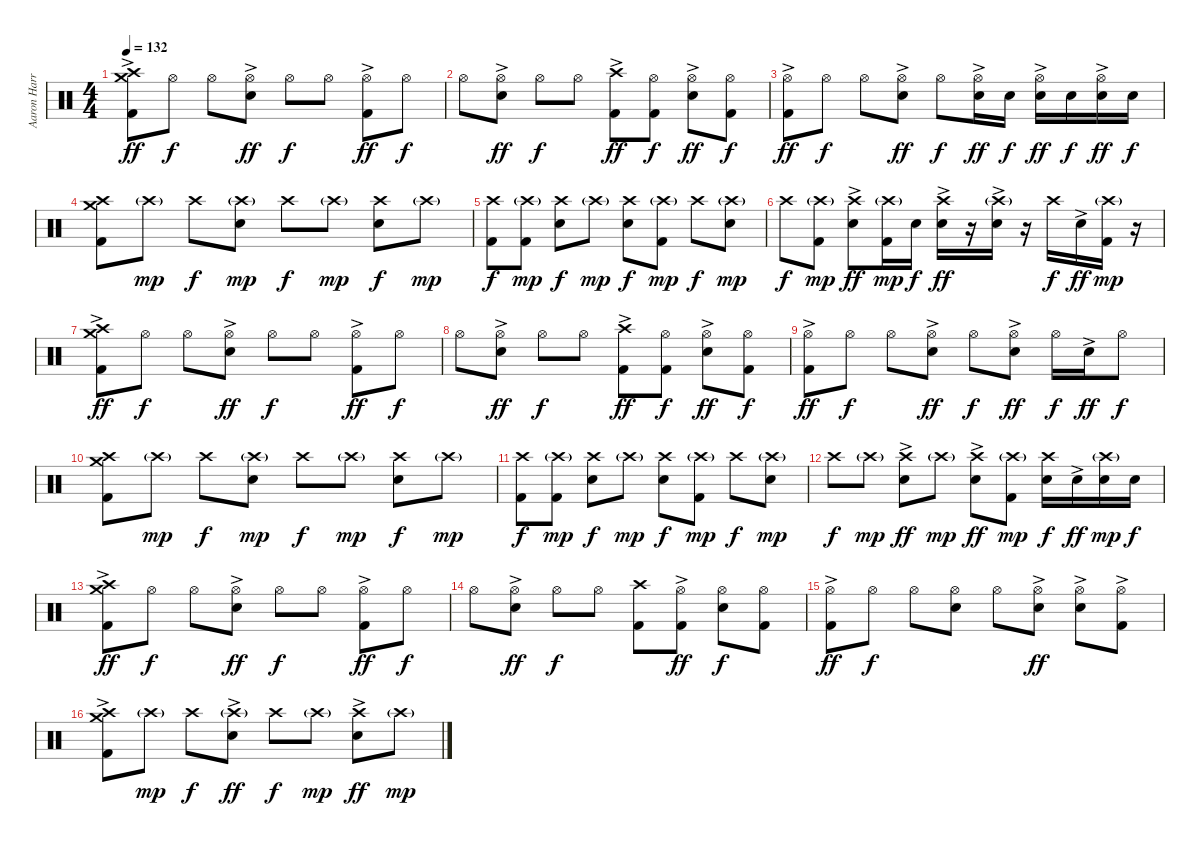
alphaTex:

\track ("Aaron Harris" "Aaron Harr") {instrument percussion}
\staff {score}
\articulation defaults
\ts (4 4)
\tempo 132
\clef neutral
\ks c
("Crash medium (hit)" "Crash high (hit)" "Kick (hit) 2"{ac}).8{dy ff} "Hi-Hat (open)".8{dy f} "Hi-Hat (open)".8 ("Hi-Hat (open)" "Snare (hit) 2"{ac}).8{dy ff} "Hi-Hat (open)".8{dy f} "Hi-Hat (open)".8 ("Hi-Hat (open)" "Kick (hit) 2"{ac}).8{dy ff} "Hi-Hat (open)".8{dy f} |
"Hi-Hat (open)".8 ("Hi-Hat (open)" "Snare (hit) 2"{ac}).8{dy ff} "Hi-Hat (open)".8{dy f} "Hi-Hat (open)".8 ("Crash high (hit)" "Kick (hit) 2"{ac}).8{dy ff} ("Hi-Hat (open)" "Kick (hit) 2").8{dy f} ("Hi-Hat (open)" "Snare (hit) 2"{ac}).8{dy ff} ("Hi-Hat (open)" "Kick (hit) 2").8{dy f} |
("Hi-Hat (open)" "Kick (hit) 2"{ac}).8{dy ff} "Hi-Hat (open)".8{dy f} "Hi-Hat (open)".8 ("Hi-Hat (open)" "Snare (hit) 2"{ac}).8{dy ff} "Hi-Hat (open)".8{dy f} ("Hi-Hat (open)" "Snare (hit) 2"{ac}).16{dy ff} "Snare (hit) 2".16{dy f} ("Hi-Hat (open)" "Snare (hit) 2"{ac}).16{dy ff} "Snare (hit) 2".16{dy f} ("Hi-Hat (open)" "Snare (hit) 2"{ac}).16{dy ff} "Snare (hit) 2".16{dy f} |
("Crash high (hit)" "Crash medium (hit)" "Kick (hit) 2").8 "Crash high (hit)"{g}.8{dy mp} "Crash high (hit)".8{dy f} ("Crash high (hit)"{g} "Snare (hit) 2").8{dy mp} "Crash high (hit)".8{dy f} "Crash high (hit)"{g}.8{dy mp} ("Crash high (hit)" "Snare (hit) 2").8{dy f} "Crash high (hit)"{g}.8{dy mp} |
("Crash high (hit)" "Kick (hit) 2").8{dy f} ("Crash high (hit)"{g} "Kick (hit) 2").8{dy mp} ("Crash high (hit)" "Snare (hit) 2").8{dy f} "Crash high (hit)"{g}.8{dy mp} ("Crash high (hit)" "Snare (hit) 2").8{dy f} ("Crash high (hit)"{g} "Kick (hit) 2").8{dy mp} "Crash high (hit)".8{dy f} ("Crash high (hit)"{g} "Snare (hit) 2").8{dy mp} |
"Crash high (hit)".8{dy f} ("Crash high (hit)"{g} "Kick (hit) 2").8{dy mp} ("Crash high (hit)" "Snare (hit) 2"{ac}).8{dy ff} ("Crash high (hit)"{g} "Kick (hit) 2").16{dy mp} "Electric Snare (hit)".16{dy f} ("Crash high (hit)" "Snare (hit) 2"{ac}).16{dy ff} r.16 ("Crash high (hit)"{g} "Snare (hit) 2"{ac}).16 r.16 "Crash high (hit)".16{dy f} "Snare (hit) 2"{ac}.16{dy ff} ("Crash high (hit)"{g} "Kick (hit) 2").16{dy mp} r.16 |
("Crash medium (hit)" "Crash high (hit)" "Kick (hit) 2"{ac}).8{dy ff} "Hi-Hat (open)".8{dy f} "Hi-Hat (open)".8 ("Hi-Hat (open)" "Snare (hit) 2"{ac}).8{dy ff} "Hi-Hat (open)".8{dy f} "Hi-Hat (open)".8 ("Hi-Hat (open)" "Kick (hit) 2"{ac}).8{dy ff} "Hi-Hat (open)".8{dy f} |
"Hi-Hat (open)".8 ("Hi-Hat (open)" "Snare (hit) 2"{ac}).8{dy ff} "Hi-Hat (open)".8{dy f} "Hi-Hat (open)".8 ("Crash high (hit)" "Kick (hit) 2"{ac}).8{dy ff} ("Hi-Hat (open)" "Kick (hit) 2").8{dy f} ("Hi-Hat (open)" "Snare (hit) 2"{ac}).8{dy ff} ("Hi-Hat (open)" "Kick (hit) 2").8{dy f} |
("Hi-Hat (open)" "Kick (hit) 2"{ac}).8{dy ff} "Hi-Hat (open)".8{dy f} "Hi-Hat (open)".8 ("Hi-Hat (open)" "Snare (hit) 2"{ac}).8{dy ff} "Hi-Hat (open)".8{dy f} ("Hi-Hat (open)" "Snare (hit) 2"{ac}).8{dy ff} "Hi-Hat (open)".16{dy f} "Snare (hit) 2"{ac}.16{dy ff} "Hi-Hat (open)".8{dy f} |
("Crash high (hit)" "Crash medium (hit)" "Kick (hit) 2").8 "Crash high (hit)"{g}.8{dy mp} "Crash high (hit)".8{dy f} ("Crash high (hit)"{g} "Snare (hit) 2").8{dy mp} "Crash high (hit)".8{dy f} "Crash high (hit)"{g}.8{dy mp} ("Crash high (hit)" "Snare (hit) 2").8{dy f} "Crash high (hit)"{g}.8{dy mp} |
("Crash high (hit)" "Kick (hit) 2").8{dy f} ("Crash high (hit)"{g} "Kick (hit) 2").8{dy mp} ("Crash high (hit)" "Snare (hit) 2").8{dy f} "Crash high (hit)"{g}.8{dy mp} ("Crash high (hit)" "Snare (hit) 2").8{dy f} ("Crash high (hit)"{g} "Kick (hit) 2").8{dy mp} "Crash high (hit)".8{dy f} ("Crash high (hit)"{g} "Snare (hit) 2").8{dy mp} |
"Crash high (hit)".8{dy f} "Crash high (hit)"{g}.8{dy mp} ("Crash high (hit)" "Snare (hit) 2"{ac}).8{dy ff} "Crash high (hit)"{g}.8{dy mp} ("Crash high (hit)" "Snare (hit) 2"{ac}).8{dy ff} ("Crash high (hit)"{g} "Kick (hit) 2").8{dy mp} ("Crash high (hit)" "Snare (hit) 2").16{dy f} "Snare (hit) 2"{ac}.16{dy ff} ("Crash high (hit)"{g} "Snare (hit) 2").16{dy mp} "Snare (hit) 2".16{dy f} |
("Crash medium (hit)" "Crash high (hit)" "Kick (hit) 2"{ac}).8{dy ff} "Hi-Hat (open)".8{dy f} "Hi-Hat (open)".8 ("Hi-Hat (open)" "Snare (hit) 2"{ac}).8{dy ff} "Hi-Hat (open)".8{dy f} "Hi-Hat (open)".8 ("Hi-Hat (open)" "Kick (hit) 2"{ac}).8{dy ff} "Hi-Hat (open)".8{dy f} |
"Hi-Hat (open)".8 ("Hi-Hat (open)" "Snare (hit) 2"{ac}).8{dy ff} "Hi-Hat (open)".8{dy f} "Hi-Hat (open)".8 ("Crash high (hit)" "Kick (hit) 2").8 ("Hi-Hat (open)" "Kick (hit) 2"{ac}).8{dy ff} ("Hi-Hat (open)" "Snare (hit) 2").8{dy f} ("Hi-Hat (open)" "Kick (hit) 2").8 |
("Hi-Hat (open)" "Kick (hit) 2"{ac}).8{dy ff} "Hi-Hat (open)".8{dy f} "Hi-Hat (open)".8 ("Hi-Hat (open)" "Snare (hit) 2").8 "Hi-Hat (open)".8 ("Hi-Hat (open)" "Snare (hit) 2"{ac}).8{dy ff} ("Hi-Hat (open)" "Snare (hit) 2"{ac}).8 ("Hi-Hat (open)" "Kick (hit) 2"{ac}).8 |
("Crash high (hit)" "Crash medium (hit)" "Kick (hit) 2"{ac}).8 "Crash high (hit)"{g}.8{dy mp} "Crash high (hit)".8{dy f} ("Crash high (hit)"{g} "Snare (hit) 2"{ac}).8{dy ff} "Crash high (hit)".8{dy f} "Crash high (hit)"{g}.8{dy mp} ("Crash high (hit)" "Snare (hit) 2"{ac}).8{dy ff} "Crash high (hit)"{g}.8{dy mp}
